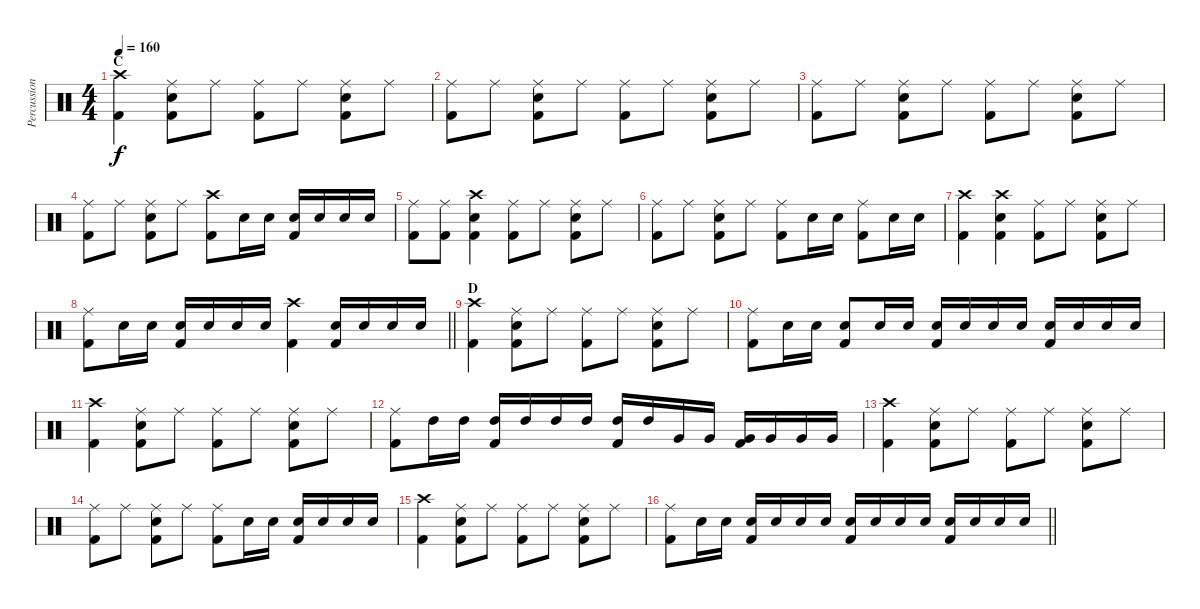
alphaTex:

\track ("Percussion" "Percussion") {instrument percussion}
\staff {score}
\articulation defaults
\ts (4 4)
\section ("" "C")
\tempo 160
\clef neutral
\ks c
("Crash high (hit)" "Kick (hit) 2").4{dy f} ("Ride (middle)" "Electric Snare (hit)" "Kick (hit) 2").8 "Ride (middle)".8 ("Ride (middle)" "Kick (hit) 2").8 "Ride (middle)".8 ("Ride (middle)" "Electric Snare (hit)" "Kick (hit) 2").8 "Ride (middle)".8 |
("Ride (middle)" "Kick (hit) 2").8 "Ride (middle)".8 ("Ride (middle)" "Electric Snare (hit)" "Kick (hit) 2").8 "Ride (middle)".8 ("Ride (middle)" "Kick (hit) 2").8 "Ride (middle)".8 ("Ride (middle)" "Electric Snare (hit)" "Kick (hit) 2").8 "Ride (middle)".8 |
("Ride (middle)" "Kick (hit) 2").8 "Ride (middle)".8 ("Ride (middle)" "Electric Snare (hit)" "Kick (hit) 2").8 "Ride (middle)".8 ("Ride (middle)" "Kick (hit) 2").8 "Ride (middle)".8 ("Ride (middle)" "Electric Snare (hit)" "Kick (hit) 2").8 "Ride (middle)".8 |
("Ride (middle)" "Kick (hit) 2").8 "Ride (middle)".8 ("Ride (middle)" "Electric Snare (hit)" "Kick (hit) 2").8 "Ride (middle)".8 ("Crash high (hit)" "Kick (hit) 2").8 "Electric Snare (hit)".16 "Electric Snare (hit)".16 ("Electric Snare (hit)" "Kick (hit) 2").16 "Electric Snare (hit)".16 "Electric Snare (hit)".16 "Electric Snare (hit)".16 |
("Ride (middle)" "Kick (hit) 2").8 ("Ride (middle)" "Kick (hit) 2").8 ("Crash high (hit)" "Electric Snare (hit)" "Kick (hit) 2").4 ("Ride (middle)" "Kick (hit) 2").8 "Ride (middle)".8 ("Ride (middle)" "Electric Snare (hit)" "Kick (hit) 2").8 "Ride (middle)".8 |
("Ride (middle)" "Kick (hit) 2").8 "Ride (middle)".8 ("Ride (middle)" "Electric Snare (hit)" "Kick (hit) 2").8 "Ride (middle)".8 ("Ride (middle)" "Kick (hit) 2").8 "Electric Snare (hit)".16 "Electric Snare (hit)".16 ("Ride (middle)" "Kick (hit) 2").8 "Electric Snare (hit)".16 "Electric Snare (hit)".16 |
("Crash high (hit)" "Kick (hit) 2").4 ("Crash high (hit)" "Electric Snare (hit)" "Kick (hit) 2").4 ("Ride (middle)" "Kick (hit) 2").8 "Ride (middle)".8 ("Ride (middle)" "Electric Snare (hit)" "Kick (hit) 2").8 "Ride (middle)".8 |
\barLineRight lightlight
("Ride (middle)" "Kick (hit) 2").8 "Electric Snare (hit)".16 "Electric Snare (hit)".16 ("Electric Snare (hit)" "Kick (hit) 2").16 "Electric Snare (hit)".16 "Electric Snare (hit)".16 "Electric Snare (hit)".16 ("Crash high (hit)" "Kick (hit) 2").4 ("Electric Snare (hit)" "Kick (hit) 2").16 "Electric Snare (hit)".16 "Electric Snare (hit)".16 "Electric Snare (hit)".16 |
\section ("" "D")
("Crash high (hit)" "Kick (hit) 2").4 ("Ride (middle)" "Electric Snare (hit)" "Kick (hit) 2").8 "Ride (middle)".8 ("Ride (middle)" "Kick (hit) 2").8 "Ride (middle)".8 ("Ride (middle)" "Electric Snare (hit)" "Kick (hit) 2").8 "Ride (middle)".8 |
("Ride (middle)" "Kick (hit) 2").8 "Electric Snare (hit)".16 "Electric Snare (hit)".16 ("Electric Snare (hit)" "Kick (hit) 2").8 "Electric Snare (hit)".16 "Electric Snare (hit)".16 ("Electric Snare (hit)" "Kick (hit) 2").16 "Electric Snare (hit)".16 "Electric Snare (hit)".16 "Electric Snare (hit)".16 ("Electric Snare (hit)" "Kick (hit) 2").16 "Electric Snare (hit)".16 "Electric Snare (hit)".16 "Electric Snare (hit)".16 |
("Crash high (hit)" "Kick (hit) 2").4 ("Ride (middle)" "Electric Snare (hit)" "Kick (hit) 2").8 "Ride (middle)".8 ("Ride (middle)" "Kick (hit) 2").8 "Ride (middle)".8 ("Ride (middle)" "Electric Snare (hit)" "Kick (hit) 2").8 "Ride (middle)".8 |
("Ride (middle)" "Kick (hit) 2").8 "High Tom (hit)".16 "High Tom (hit)".16 ("High Tom (hit)" "Kick (hit) 2").16 "High Tom (hit)".16 "High Tom (hit)".16 "High Tom (hit)".16 ("High Tom (hit)" "Kick (hit) 2").16 "High Tom (hit)".16 "Very Low Tom (hit)".16 "Very Low Tom (hit)".16 ("Very Low Tom (hit)" "Kick (hit) 2").16 "Very Low Tom (hit)".16 "Very Low Tom (hit)".16 "Very Low Tom (hit)".16 |
("Crash high (hit)" "Kick (hit) 2").4 ("Ride (middle)" "Electric Snare (hit)" "Kick (hit) 2").8 "Ride (middle)".8 ("Ride (middle)" "Kick (hit) 2").8 "Ride (middle)".8 ("Ride (middle)" "Electric Snare (hit)" "Kick (hit) 2").8 "Ride (middle)".8 |
("Ride (middle)" "Kick (hit) 2").8 "Ride (middle)".8 ("Ride (middle)" "Electric Snare (hit)" "Kick (hit) 2").8 "Ride (middle)".8 ("Ride (middle)" "Kick (hit) 2").8 "Electric Snare (hit)".16 "Electric Snare (hit)".16 ("Electric Snare (hit)" "Kick (hit) 2").16 "Electric Snare (hit)".16 "Electric Snare (hit)".16 "Electric Snare (hit)".16 |
("Crash high (hit)" "Kick (hit) 2").4 ("Ride (middle)" "Electric Snare (hit)" "Kick (hit) 2").8 "Ride (middle)".8 ("Ride (middle)" "Kick (hit) 2").8 "Ride (middle)".8 ("Ride (middle)" "Electric Snare (hit)" "Kick (hit) 2").8 "Ride (middle)".8 |
\barLineRight lightlight
("Ride (middle)" "Kick (hit) 2").8 "Electric Snare (hit)".16 "Electric Snare (hit)".16 ("Electric Snare (hit)" "Kick (hit) 2").16 "Electric Snare (hit)".16 "Electric Snare (hit)".16 "Electric Snare (hit)".16 ("Electric Snare (hit)" "Kick (hit) 2").16 "Electric Snare (hit)".16 "Electric Snare (hit)".16 "Electric Snare (hit)".16 ("Electric Snare (hit)" "Kick (hit) 2").16 "Electric Snare (hit)".16 "Electric Snare (hit)".16 "Electric Snare (hit)".16
